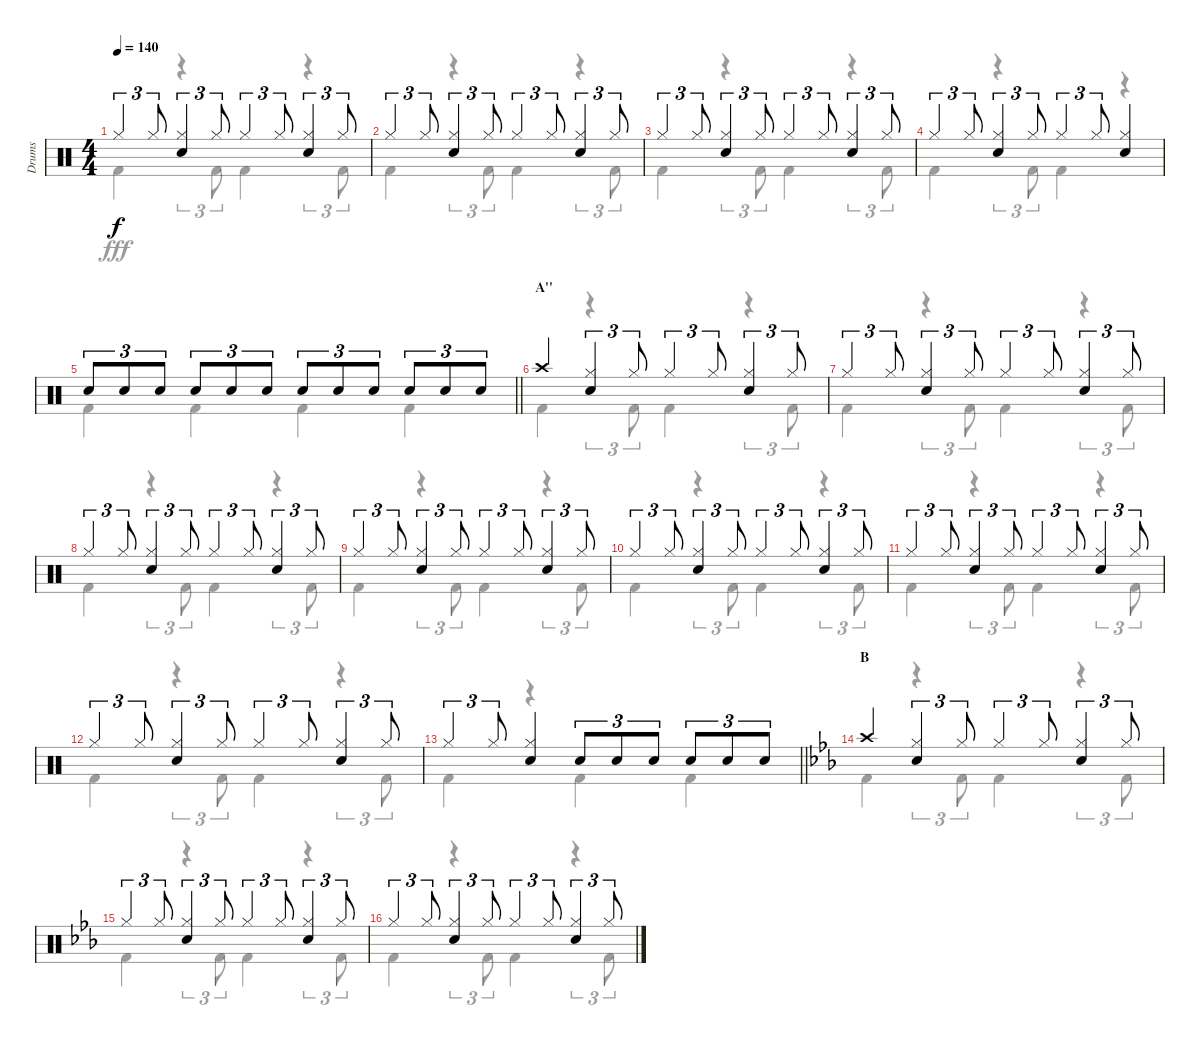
\track ("Drums" "Drums") {instrument percussion}
\staff {score}
\articulation defaults
\voice
\ts (4 4)
\tempo 140
\clef neutral
\ks c "Hi-Hat (closed)".4{tu (3 2) dy f} "Hi-Hat (closed)".8{tu (3 2)}
("Hi-Hat (closed)" "Snare (hit) 2").4{tu (3 2)} "Hi-Hat (closed)".8{tu (3 2)} "Hi-Hat (closed)".4{tu (3 2)} "Hi-Hat (closed)".8{tu (3 2)} ("Hi-Hat (closed)" "Snare (hit) 2").4{tu (3 2)} "Hi-Hat (closed)".8{tu (3 2)} |
"Hi-Hat (closed)".4{tu (3 2)} "Hi-Hat (closed)".8{tu (3 2)} ("Hi-Hat (closed)" "Snare (hit) 2").4{tu (3 2)} "Hi-Hat (closed)".8{tu (3 2)} "Hi-Hat (closed)".4{tu (3 2)} "Hi-Hat (closed)".8{tu (3 2)} ("Hi-Hat (closed)" "Snare (hit) 2").4{tu (3 2)} "Hi-Hat (closed)".8{tu (3 2)} |
"Hi-Hat (closed)".4{tu (3 2)} "Hi-Hat (closed)".8{tu (3 2)} ("Hi-Hat (closed)" "Snare (hit) 2").4{tu (3 2)} "Hi-Hat (closed)".8{tu (3 2)} "Hi-Hat (closed)".4{tu (3 2)} "Hi-Hat (closed)".8{tu (3 2)} ("Hi-Hat (closed)" "Snare (hit) 2").4{tu (3 2)} "Hi-Hat (closed)".8{tu (3 2)} |
"Hi-Hat (closed)".4{tu (3 2)} "Hi-Hat (closed)".8{tu (3 2)} ("Hi-Hat (closed)" "Snare (hit) 2").4{tu (3 2)} "Hi-Hat (closed)".8{tu (3 2)} "Hi-Hat (closed)".4{tu (3 2)} "Hi-Hat (closed)".8{tu (3 2)} ("Hi-Hat (closed)" "Snare (hit) 2").4 |
\barLineRight lightlight "Snare (hit) 2".8{tu (3 2)} "Snare (hit) 2".8{tu (3 2)} "Snare (hit) 2".8{tu (3 2)} "Snare (hit) 2".8{tu (3 2)} "Snare (hit) 2".8{tu (3 2)} "Snare (hit) 2".8{tu (3 2)} "Snare (hit) 2".8{tu (3 2)} "Snare (hit) 2".8{tu (3 2)} "Snare (hit) 2".8{tu (3 2)} "Snare (hit) 2".8{tu (3 2)} "Snare (hit) 2".8{tu (3 2)} "Snare (hit) 2".8{tu (3 2)}
|
\section ("" "A''")
"Crash high (hit)".4 ("Hi-Hat (closed)" "Snare (hit) 2").4{tu (3 2)} "Hi-Hat (closed)".8{tu (3 2)} "Hi-Hat (closed)".4{tu (3 2)} "Hi-Hat (closed)".8{tu (3 2)} ("Hi-Hat (closed)" "Snare (hit) 2").4{tu (3 2)} "Hi-Hat (closed)".8{tu (3 2)} |
"Hi-Hat (closed)".4{tu (3 2)} "Hi-Hat (closed)".8{tu (3 2)} ("Hi-Hat (closed)" "Snare (hit) 2").4{tu (3 2)} "Hi-Hat (closed)".8{tu (3 2)} "Hi-Hat (closed)".4{tu (3 2)} "Hi-Hat (closed)".8{tu (3 2)} ("Hi-Hat (closed)" "Snare (hit) 2").4{tu (3 2)} "Hi-Hat (closed)".8{tu (3 2)} |
"Hi-Hat (closed)".4{tu (3 2)} "Hi-Hat (closed)".8{tu (3 2)} ("Hi-Hat (closed)" "Snare (hit) 2").4{tu (3 2)} "Hi-Hat (closed)".8{tu (3 2)} "Hi-Hat (closed)".4{tu (3 2)} "Hi-Hat (closed)".8{tu (3 2)} ("Hi-Hat (closed)" "Snare (hit) 2").4{tu (3 2)} "Hi-Hat (closed)".8{tu (3 2)} |
"Hi-Hat (closed)".4{tu (3 2)} "Hi-Hat (closed)".8{tu (3 2)} ("Hi-Hat (closed)" "Snare (hit) 2").4{tu (3 2)} "Hi-Hat (closed)".8{tu (3 2)} "Hi-Hat (closed)".4{tu (3 2)} "Hi-Hat (closed)".8{tu (3 2)} ("Hi-Hat (closed)" "Snare (hit) 2").4{tu (3 2)} "Hi-Hat (closed)".8{tu (3 2)} |
"Hi-Hat (closed)".4{tu (3 2)} "Hi-Hat (closed)".8{tu (3 2)} ("Hi-Hat (closed)" "Snare (hit) 2").4{tu (3 2)} "Hi-Hat (closed)".8{tu (3 2)} "Hi-Hat (closed)".4{tu (3 2)} "Hi-Hat (closed)".8{tu (3 2)} ("Hi-Hat (closed)" "Snare (hit) 2").4{tu (3 2)} "Hi-Hat (closed)".8{tu (3 2)} |
"Hi-Hat (closed)".4{tu (3 2)} "Hi-Hat (closed)".8{tu (3 2)} ("Hi-Hat (closed)" "Snare (hit) 2").4{tu (3 2)} "Hi-Hat (closed)".8{tu (3 2)} "Hi-Hat (closed)".4{tu (3 2)} "Hi-Hat (closed)".8{tu (3 2)} ("Hi-Hat (closed)" "Snare (hit) 2").4{tu (3 2)} "Hi-Hat (closed)".8{tu (3 2)} |
"Hi-Hat (closed)".4{tu (3 2)} "Hi-Hat (closed)".8{tu (3 2)} ("Hi-Hat (closed)" "Snare (hit) 2").4{tu (3 2)} "Hi-Hat (closed)".8{tu (3 2)} "Hi-Hat (closed)".4{tu (3 2)} "Hi-Hat (closed)".8{tu (3 2)} ("Hi-Hat (closed)" "Snare (hit) 2").4{tu (3 2)} "Hi-Hat (closed)".8{tu (3 2)} |
\barLineRight lightlight "Hi-Hat (closed)".4{tu (3 2)} "Hi-Hat (closed)".8{tu (3 2)}
("Hi-Hat (closed)" "Snare (hit) 2").4 "Snare (hit) 2".8{tu (3 2)} "Snare (hit) 2".8{tu (3 2)} "Snare (hit) 2".8{tu (3 2)} "Snare (hit) 2".8{tu (3 2)} "Snare (hit) 2".8{tu (3 2)} "Snare (hit) 2".8{tu (3 2)} |
\section ("" "B")
\ks eb "Crash high (hit)".4
("Hi-Hat (closed)" "Snare (hit) 2").4{tu (3 2)} "Hi-Hat (closed)".8{tu (3 2)} "Hi-Hat (closed)".4{tu (3 2)} "Hi-Hat (closed)".8{tu (3 2)} ("Hi-Hat (closed)" "Snare (hit) 2").4{tu (3 2)} "Hi-Hat (closed)".8{tu (3 2)} |
"Hi-Hat (closed)".4{tu (3 2)} "Hi-Hat (closed)".8{tu (3 2)} ("Hi-Hat (closed)" "Snare (hit) 2").4{tu (3 2)} "Hi-Hat (closed)".8{tu (3 2)} "Hi-Hat (closed)".4{tu (3 2)} "Hi-Hat (closed)".8{tu (3 2)} ("Hi-Hat (closed)" "Snare (hit) 2").4{tu (3 2)} "Hi-Hat (closed)".8{tu (3 2)} |
"Hi-Hat (closed)".4{tu (3 2)} "Hi-Hat (closed)".8{tu (3 2)} ("Hi-Hat (closed)" "Snare (hit) 2").4{tu (3 2)} "Hi-Hat (closed)".8{tu (3 2)} "Hi-Hat (closed)".4{tu (3 2)} "Hi-Hat (closed)".8{tu (3 2)} ("Hi-Hat (closed)" "Snare (hit) 2").4{tu (3 2)} "Hi-Hat (closed)".8{tu (3 2)}
\voice
\clef neutral
\ottava regular
\simile none
\ks c "Kick (hit) 2".4{dy fff}
r.4{tu (3 2)} "Kick (hit) 2".8{tu (3 2)} "Kick (hit) 2".4 r.4{tu (3 2)} "Kick (hit) 2".8{tu (3 2)} |
"Kick (hit) 2".4 r.4{tu (3 2)} "Kick (hit) 2".8{tu (3 2)} "Kick (hit) 2".4 r.4{tu (3 2)} "Kick (hit) 2".8{tu (3 2)} |
"Kick (hit) 2".4 r.4{tu (3 2)} "Kick (hit) 2".8{tu (3 2)} "Kick (hit) 2".4 r.4{tu (3 2)} "Kick (hit) 2".8{tu (3 2)} |
"Kick (hit) 2".4 r.4{tu (3 2)} "Kick (hit) 2".8{tu (3 2)} "Kick (hit) 2".4 r.4 |
\barLineRight lightlight "Kick (hit) 2".4 "Kick (hit) 2".4 "Kick (hit) 2".4 "Kick (hit) 2".4
|
"Kick (hit) 2".4 r.4{tu (3 2)} "Kick (hit) 2".8{tu (3 2)} "Kick (hit) 2".4 r.4{tu (3 2)} "Kick (hit) 2".8{tu (3 2)} |
"Kick (hit) 2".4 r.4{tu (3 2)} "Kick (hit) 2".8{tu (3 2)} "Kick (hit) 2".4 r.4{tu (3 2)} "Kick (hit) 2".8{tu (3 2)} |
"Kick (hit) 2".4 r.4{tu (3 2)} "Kick (hit) 2".8{tu (3 2)} "Kick (hit) 2".4 r.4{tu (3 2)} "Kick (hit) 2".8{tu (3 2)} |
"Kick (hit) 2".4 r.4{tu (3 2)} "Kick (hit) 2".8{tu (3 2)} "Kick (hit) 2".4 r.4{tu (3 2)} "Kick (hit) 2".8{tu (3 2)} |
"Kick (hit) 2".4 r.4{tu (3 2)} "Kick (hit) 2".8{tu (3 2)} "Kick (hit) 2".4 r.4{tu (3 2)} "Kick (hit) 2".8{tu (3 2)} |
"Kick (hit) 2".4 r.4{tu (3 2)} "Kick (hit) 2".8{tu (3 2)} "Kick (hit) 2".4 r.4{tu (3 2)} "Kick (hit) 2".8{tu (3 2)} |
"Kick (hit) 2".4 r.4{tu (3 2)} "Kick (hit) 2".8{tu (3 2)} "Kick (hit) 2".4 r.4{tu (3 2)} "Kick (hit) 2".8{tu (3 2)} |
\barLineRight lightlight "Kick (hit) 2".4
r.4 "Kick (hit) 2".4 "Kick (hit) 2".4 |
\ks eb "Kick (hit) 2".4
r.4{tu (3 2)} "Kick (hit) 2".8{tu (3 2)} "Kick (hit) 2".4 r.4{tu (3 2)} "Kick (hit) 2".8{tu (3 2)} |
"Kick (hit) 2".4 r.4{tu (3 2)} "Kick (hit) 2".8{tu (3 2)} "Kick (hit) 2".4 r.4{tu (3 2)} "Kick (hit) 2".8{tu (3 2)} |
"Kick (hit) 2".4 r.4{tu (3 2)} "Kick (hit) 2".8{tu (3 2)} "Kick (hit) 2".4 r.4{tu (3 2)} "Kick (hit) 2".8{tu (3 2)}
